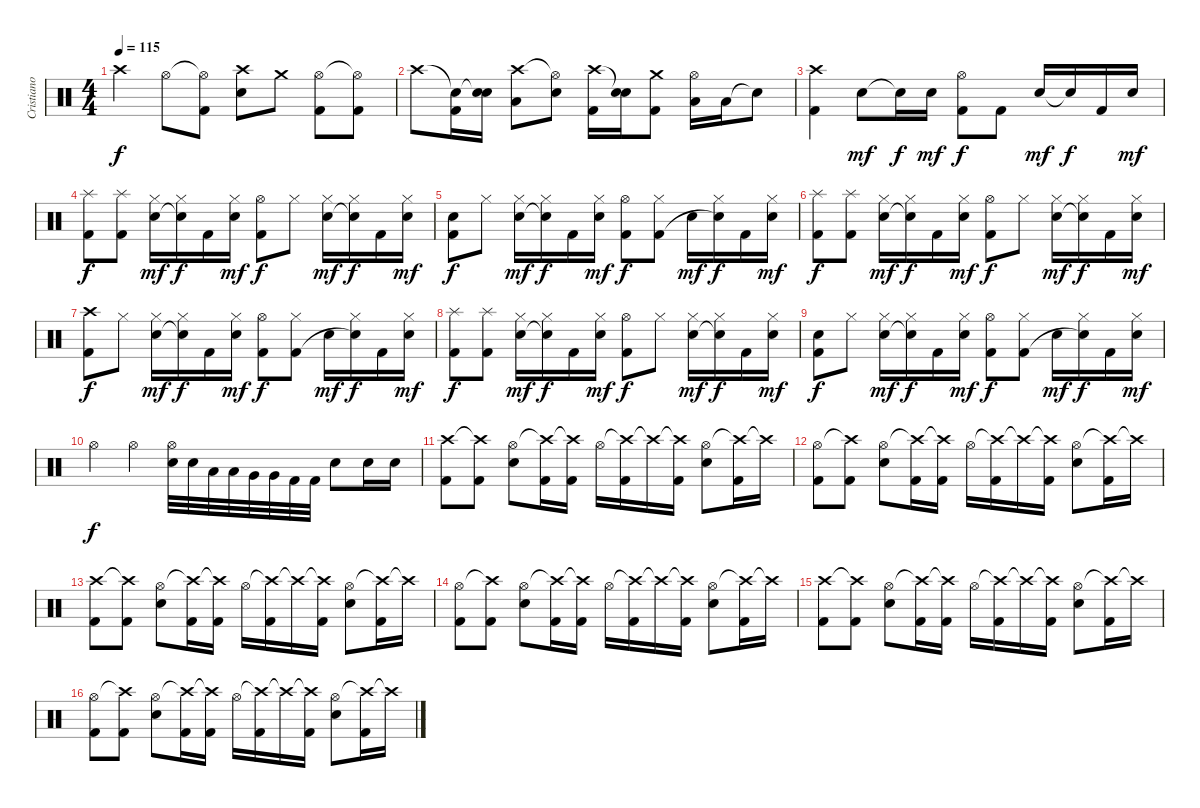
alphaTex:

\track ("Cristiano Mozzati" "Cristiano ") {instrument percussion}
\staff {score}
\articulation defaults
\ts (4 4)
\tempo 115
\clef neutral
\ks c "Crash high (hit)".4{dy f} "Hi-Hat (open)".8
("Hi-Hat (open)"{t} "Kick (hit) 2").8 ("Crash high (hit)" "Electric Snare (hit)").8 "Crash medium (hit)".8 ("Hi-Hat (open)" "Kick (hit) 2").8 ("Hi-Hat (open)"{t} "Kick (hit) 2").8 |
"Crash high (hit)".8 ("Snare (hit)"{t} "Kick (hit) 2").16 ("Snare (hit)"{t} "Electric Snare (hit)").16 ("Crash high (hit)" "Low Tom (hit)").8 ("Hi-Hat (open)"{t} "Electric Snare (hit)").8 ("Crash high (hit)" "Kick (hit) 2").16 ("Snare (hit)"{t} "Electric Snare (hit)").16 ("Crash medium (hit)" "Kick (hit) 2").8 ("Hi-Hat (open)" "Low Tom (hit)").16 "Low Tom (hit)".16 "Snare (hit)"{t}.8 |
("Crash high (hit)" "Kick (hit) 2").4 "Electric Snare (hit)".8{dy mf} "Snare (hit)"{t}.16{dy f} "Electric Snare (hit)".16{dy mf} ("Hi-Hat (open)" "Kick (hit) 2").8{dy f} "Kick (hit) 2".8 "Electric Snare (hit)".16{dy mf} "Snare (hit)"{t}.16{dy f} "Kick (hit) 2".16 "Electric Snare (hit)".16{dy mf} |
("Splash (hit)" "Kick (hit) 2").8{dy f} ("Splash (hit)" "Kick (hit) 2").8 ("Hi-Hat (closed)" "Electric Snare (hit)").16{dy mf} ("Hi-Hat (closed)" "Snare (hit)"{t}).16{dy f} "Kick (hit) 2".16 ("Hi-Hat (closed)" "Electric Snare (hit)").16{dy mf} ("Hi-Hat (open)" "Kick (hit) 2").8{dy f} "Hi-Hat (closed)".8 ("Hi-Hat (closed)" "Electric Snare (hit)").16{dy mf} ("Hi-Hat (closed)" "Snare (hit)"{t}).16{dy f} "Kick (hit) 2".16 ("Hi-Hat (closed)" "Electric Snare (hit)").16{dy mf} |
("Metronome (bell)" "Kick (hit) 2").8{dy f} "Hi-Hat (closed)".8 ("Hi-Hat (closed)" "Electric Snare (hit)").16{dy mf} ("Hi-Hat (closed)" "Snare (hit)"{t}).16{dy f} "Kick (hit) 2".16 ("Hi-Hat (closed)" "Electric Snare (hit)").16{dy mf} ("Hi-Hat (open)" "Kick (hit) 2").8{dy f} ("Hi-Hat (closed)" "Kick (hit) 2").8 "Electric Snare (hit)".16{dy mf} ("Hi-Hat (closed)" "Snare (hit)"{t}).16{dy f} "Kick (hit) 2".16 ("Hi-Hat (closed)" "Electric Snare (hit)").16{dy mf} |
("Splash (hit)" "Kick (hit) 2").8{dy f} ("Splash (hit)" "Kick (hit) 2").8 ("Hi-Hat (closed)" "Electric Snare (hit)").16{dy mf} ("Hi-Hat (closed)" "Snare (hit)"{t}).16{dy f} "Kick (hit) 2".16 ("Hi-Hat (closed)" "Electric Snare (hit)").16{dy mf} ("Hi-Hat (open)" "Kick (hit) 2").8{dy f} "Hi-Hat (closed)".8 ("Hi-Hat (closed)" "Electric Snare (hit)").16{dy mf} ("Hi-Hat (closed)" "Snare (hit)"{t}).16{dy f} "Kick (hit) 2".16 ("Hi-Hat (closed)" "Electric Snare (hit)").16{dy mf} |
("Crash high (hit)" "Kick (hit) 2").8{dy f} "Hi-Hat (closed)".8 ("Hi-Hat (closed)" "Electric Snare (hit)").16{dy mf} ("Hi-Hat (closed)" "Snare (hit)"{t}).16{dy f} "Kick (hit) 2".16 ("Hi-Hat (closed)" "Electric Snare (hit)").16{dy mf} ("Hi-Hat (open)" "Kick (hit) 2").8{dy f} ("Hi-Hat (closed)" "Kick (hit) 2").8 "Electric Snare (hit)".16{dy mf} ("Hi-Hat (closed)" "Snare (hit)"{t}).16{dy f} "Kick (hit) 2".16 ("Hi-Hat (closed)" "Electric Snare (hit)").16{dy mf} |
("Splash (hit)" "Kick (hit) 2").8{dy f} ("Splash (hit)" "Kick (hit) 2").8 ("Hi-Hat (closed)" "Electric Snare (hit)").16{dy mf} ("Hi-Hat (closed)" "Snare (hit)"{t}).16{dy f} "Kick (hit) 2".16 ("Hi-Hat (closed)" "Electric Snare (hit)").16{dy mf} ("Hi-Hat (open)" "Kick (hit) 2").8{dy f} "Hi-Hat (closed)".8 ("Hi-Hat (closed)" "Electric Snare (hit)").16{dy mf} ("Hi-Hat (closed)" "Snare (hit)"{t}).16{dy f} "Kick (hit) 2".16 ("Hi-Hat (closed)" "Electric Snare (hit)").16{dy mf} |
("Metronome (bell)" "Kick (hit) 2").8{dy f} "Hi-Hat (closed)".8 ("Hi-Hat (closed)" "Electric Snare (hit)").16{dy mf} ("Hi-Hat (closed)" "Snare (hit)"{t}).16{dy f} "Kick (hit) 2".16 ("Hi-Hat (closed)" "Electric Snare (hit)").16{dy mf} ("Hi-Hat (open)" "Kick (hit) 2").8{dy f} ("Hi-Hat (closed)" "Kick (hit) 2").8 "Electric Snare (hit)".16{dy mf} ("Hi-Hat (closed)" "Snare (hit)"{t}).16{dy f} "Kick (hit) 2".16 ("Hi-Hat (closed)" "Electric Snare (hit)").16{dy mf} |
"Hi-Hat (open)".4{dy f} "Hi-Hat (open)".4 ("Hi-Hat (open)" "Electric Snare (hit)").32 "Electric Snare (hit)".32 "Low Tom (hit)".32 "Low Tom (hit)".32 "Very Low Tom (hit)".32 "Very Low Tom (hit)".32 "Kick (hit) 2".32 "Kick (hit) 2".32 "Electric Snare (hit)".8 "Electric Snare (hit)".16 "Electric Snare (hit)".16 |
("Crash high (hit)" "Kick (hit) 2").8 ("Crash high (hit)"{t} "Kick (hit) 2").8 ("Hi-Hat (open)" "Electric Snare (hit)").8 ("Crash high (hit)"{t} "Kick (hit) 2").16 ("Crash high (hit)"{t} "Kick (hit) 2").16 "Hi-Hat (open)".16 ("Crash high (hit)"{t} "Kick (hit) 2").16 "Crash high (hit)"{t}.16 ("Crash high (hit)"{t} "Kick (hit) 2").16 ("Hi-Hat (open)" "Electric Snare (hit)").8 ("Crash high (hit)"{t} "Kick (hit) 2").16 "Crash high (hit)"{t}.16 |
("Hi-Hat (open)" "Kick (hit) 2").8 ("Crash high (hit)"{t} "Kick (hit) 2").8 ("Hi-Hat (open)" "Electric Snare (hit)").8 ("Crash high (hit)"{t} "Kick (hit) 2").16 ("Crash high (hit)"{t} "Kick (hit) 2").16 "Hi-Hat (open)".16 ("Crash high (hit)"{t} "Kick (hit) 2").16 "Crash high (hit)"{t}.16 ("Crash high (hit)"{t} "Kick (hit) 2").16 ("Hi-Hat (open)" "Electric Snare (hit)").8 ("Crash high (hit)"{t} "Kick (hit) 2").16 "Crash high (hit)"{t}.16 |
("Crash high (hit)" "Kick (hit) 2").8 ("Crash high (hit)"{t} "Kick (hit) 2").8 ("Hi-Hat (open)" "Electric Snare (hit)").8 ("Crash high (hit)"{t} "Kick (hit) 2").16 ("Crash high (hit)"{t} "Kick (hit) 2").16 "Hi-Hat (open)".16 ("Crash high (hit)"{t} "Kick (hit) 2").16 "Crash high (hit)"{t}.16 ("Crash high (hit)"{t} "Kick (hit) 2").16 ("Hi-Hat (open)" "Electric Snare (hit)").8 ("Crash high (hit)"{t} "Kick (hit) 2").16 "Crash high (hit)"{t}.16 |
("Hi-Hat (open)" "Kick (hit) 2").8 ("Crash high (hit)"{t} "Kick (hit) 2").8 ("Hi-Hat (open)" "Electric Snare (hit)").8 ("Crash high (hit)"{t} "Kick (hit) 2").16 ("Crash high (hit)"{t} "Kick (hit) 2").16 "Hi-Hat (open)".16 ("Crash high (hit)"{t} "Kick (hit) 2").16 "Crash high (hit)"{t}.16 ("Crash high (hit)"{t} "Kick (hit) 2").16 ("Hi-Hat (open)" "Electric Snare (hit)").8 ("Crash high (hit)"{t} "Kick (hit) 2").16 "Crash high (hit)"{t}.16 |
("Crash high (hit)" "Kick (hit) 2").8 ("Crash high (hit)"{t} "Kick (hit) 2").8 ("Hi-Hat (open)" "Electric Snare (hit)").8 ("Crash high (hit)"{t} "Kick (hit) 2").16 ("Crash high (hit)"{t} "Kick (hit) 2").16 "Hi-Hat (open)".16 ("Crash high (hit)"{t} "Kick (hit) 2").16 "Crash high (hit)"{t}.16 ("Crash high (hit)"{t} "Kick (hit) 2").16 ("Hi-Hat (open)" "Electric Snare (hit)").8 ("Crash high (hit)"{t} "Kick (hit) 2").16 "Crash high (hit)"{t}.16 |
("Hi-Hat (open)" "Kick (hit) 2").8 ("Crash high (hit)"{t} "Kick (hit) 2").8 ("Hi-Hat (open)" "Electric Snare (hit)").8 ("Crash high (hit)"{t} "Kick (hit) 2").16 ("Crash high (hit)"{t} "Kick (hit) 2").16 "Hi-Hat (open)".16 ("Crash high (hit)"{t} "Kick (hit) 2").16 "Crash high (hit)"{t}.16 ("Crash high (hit)"{t} "Kick (hit) 2").16 ("Hi-Hat (open)" "Electric Snare (hit)").8 ("Crash high (hit)"{t} "Kick (hit) 2").16 "Crash high (hit)"{t}.16
